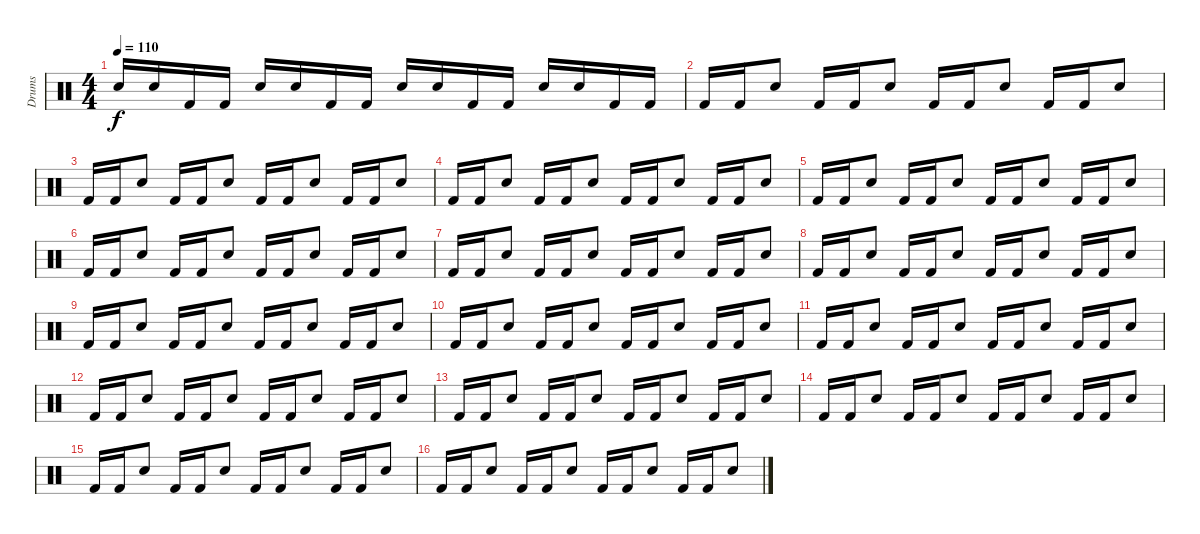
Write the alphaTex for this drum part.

\track ("Drums" "Drums") {instrument percussion}
\staff {score}
\articulation defaults
\ts (4 4)
\tempo 110
\clef neutral
\ks c "Snare (hit) 2".16{dy f} "Snare (hit) 2".16 "Kick (hit) 2".16 "Kick (hit) 2".16 "Snare (hit) 2".16 "Snare (hit) 2".16 "Kick (hit) 2".16 "Kick (hit) 2".16 "Snare (hit) 2".16 "Snare (hit) 2".16 "Kick (hit) 2".16 "Kick (hit) 2".16 "Snare (hit) 2".16 "Snare (hit) 2".16 "Kick (hit) 2".16 "Kick (hit) 2".16
|
"Kick (hit) 2".16 "Kick (hit) 2".16 "Snare (hit) 2".8 "Kick (hit) 2".16 "Kick (hit) 2".16 "Snare (hit) 2".8 "Kick (hit) 2".16 "Kick (hit) 2".16 "Snare (hit) 2".8 "Kick (hit) 2".16 "Kick (hit) 2".16 "Snare (hit) 2".8 |
"Kick (hit) 2".16 "Kick (hit) 2".16 "Snare (hit) 2".8 "Kick (hit) 2".16 "Kick (hit) 2".16 "Snare (hit) 2".8 "Kick (hit) 2".16 "Kick (hit) 2".16 "Snare (hit) 2".8 "Kick (hit) 2".16 "Kick (hit) 2".16 "Snare (hit) 2".8 |
"Kick (hit) 2".16 "Kick (hit) 2".16 "Snare (hit) 2".8 "Kick (hit) 2".16 "Kick (hit) 2".16 "Snare (hit) 2".8 "Kick (hit) 2".16 "Kick (hit) 2".16 "Snare (hit) 2".8 "Kick (hit) 2".16 "Kick (hit) 2".16 "Snare (hit) 2".8 |
"Kick (hit) 2".16 "Kick (hit) 2".16 "Snare (hit) 2".8 "Kick (hit) 2".16 "Kick (hit) 2".16 "Snare (hit) 2".8 "Kick (hit) 2".16 "Kick (hit) 2".16 "Snare (hit) 2".8 "Kick (hit) 2".16 "Kick (hit) 2".16 "Snare (hit) 2".8 |
"Kick (hit) 2".16 "Kick (hit) 2".16 "Snare (hit) 2".8 "Kick (hit) 2".16 "Kick (hit) 2".16 "Snare (hit) 2".8 "Kick (hit) 2".16 "Kick (hit) 2".16 "Snare (hit) 2".8 "Kick (hit) 2".16 "Kick (hit) 2".16 "Snare (hit) 2".8 |
"Kick (hit) 2".16 "Kick (hit) 2".16 "Snare (hit) 2".8 "Kick (hit) 2".16 "Kick (hit) 2".16 "Snare (hit) 2".8 "Kick (hit) 2".16 "Kick (hit) 2".16 "Snare (hit) 2".8 "Kick (hit) 2".16 "Kick (hit) 2".16 "Snare (hit) 2".8 |
"Kick (hit) 2".16 "Kick (hit) 2".16 "Snare (hit) 2".8 "Kick (hit) 2".16 "Kick (hit) 2".16 "Snare (hit) 2".8 "Kick (hit) 2".16 "Kick (hit) 2".16 "Snare (hit) 2".8 "Kick (hit) 2".16 "Kick (hit) 2".16 "Snare (hit) 2".8 |
"Kick (hit) 2".16 "Kick (hit) 2".16 "Snare (hit) 2".8 "Kick (hit) 2".16 "Kick (hit) 2".16 "Snare (hit) 2".8 "Kick (hit) 2".16 "Kick (hit) 2".16 "Snare (hit) 2".8 "Kick (hit) 2".16 "Kick (hit) 2".16 "Snare (hit) 2".8 |
"Kick (hit) 2".16 "Kick (hit) 2".16 "Snare (hit) 2".8 "Kick (hit) 2".16 "Kick (hit) 2".16 "Snare (hit) 2".8 "Kick (hit) 2".16 "Kick (hit) 2".16 "Snare (hit) 2".8 "Kick (hit) 2".16 "Kick (hit) 2".16 "Snare (hit) 2".8 |
"Kick (hit) 2".16 "Kick (hit) 2".16 "Snare (hit) 2".8 "Kick (hit) 2".16 "Kick (hit) 2".16 "Snare (hit) 2".8 "Kick (hit) 2".16 "Kick (hit) 2".16 "Snare (hit) 2".8 "Kick (hit) 2".16 "Kick (hit) 2".16 "Snare (hit) 2".8 |
"Kick (hit) 2".16 "Kick (hit) 2".16 "Snare (hit) 2".8 "Kick (hit) 2".16 "Kick (hit) 2".16 "Snare (hit) 2".8 "Kick (hit) 2".16 "Kick (hit) 2".16 "Snare (hit) 2".8 "Kick (hit) 2".16 "Kick (hit) 2".16 "Snare (hit) 2".8 |
"Kick (hit) 2".16 "Kick (hit) 2".16 "Snare (hit) 2".8 "Kick (hit) 2".16 "Kick (hit) 2".16 "Snare (hit) 2".8 "Kick (hit) 2".16 "Kick (hit) 2".16 "Snare (hit) 2".8 "Kick (hit) 2".16 "Kick (hit) 2".16 "Snare (hit) 2".8 |
"Kick (hit) 2".16 "Kick (hit) 2".16 "Snare (hit) 2".8 "Kick (hit) 2".16 "Kick (hit) 2".16 "Snare (hit) 2".8 "Kick (hit) 2".16 "Kick (hit) 2".16 "Snare (hit) 2".8 "Kick (hit) 2".16 "Kick (hit) 2".16 "Snare (hit) 2".8 |
"Kick (hit) 2".16 "Kick (hit) 2".16 "Snare (hit) 2".8 "Kick (hit) 2".16 "Kick (hit) 2".16 "Snare (hit) 2".8 "Kick (hit) 2".16 "Kick (hit) 2".16 "Snare (hit) 2".8 "Kick (hit) 2".16 "Kick (hit) 2".16 "Snare (hit) 2".8 |
"Kick (hit) 2".16 "Kick (hit) 2".16 "Snare (hit) 2".8 "Kick (hit) 2".16 "Kick (hit) 2".16 "Snare (hit) 2".8 "Kick (hit) 2".16 "Kick (hit) 2".16 "Snare (hit) 2".8 "Kick (hit) 2".16 "Kick (hit) 2".16 "Snare (hit) 2".8
